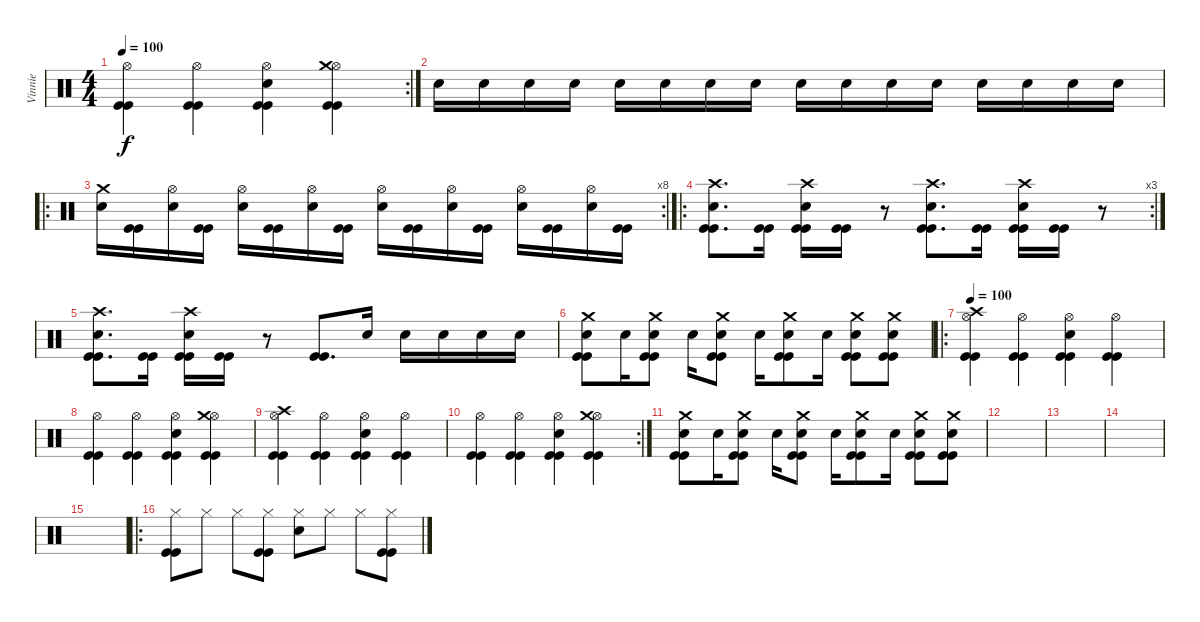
\track ("Vinnie" "Vinnie") {instrument percussion}
\staff {score}
\articulation defaults
\rc 2
\ts (4 4)
\tempo 100
\clef neutral
\ks c
("Hi-Hat (open)" "Kick (hit)" "Kick (hit)").4{dy f} ("Hi-Hat (open)" "Kick (hit)" "Kick (hit)").4 ("Hi-Hat (open)" "Snare (hit) 2" "Kick (hit)" "Kick (hit)").4 ("Hi-Hat (open)" "Crash medium (hit)" "Kick (hit)" "Kick (hit)").4 |
"Snare (hit) 2".16{volume 5} "Snare (hit) 2".16{volume 13} "Snare (hit) 2".16 "Snare (hit) 2".16 "Snare (hit) 2".16 "Snare (hit) 2".16 "Snare (hit) 2".16 "Snare (hit) 2".16 "Snare (hit) 2".16 "Snare (hit) 2".16 "Snare (hit) 2".16 "Snare (hit) 2".16 "Snare (hit) 2".16 "Snare (hit) 2".16 "Snare (hit) 2".16 "Snare (hit) 2".16 |
\ro
\rc 8
("Crash medium (hit)" "Snare (hit) 2").16 ("Kick (hit)" "Kick (hit)").16 ("Hi-Hat (open)" "Snare (hit) 2").16 ("Kick (hit)" "Kick (hit)").16 ("Hi-Hat (open)" "Snare (hit) 2").16 ("Kick (hit)" "Kick (hit)").16 ("Hi-Hat (open)" "Snare (hit) 2").16 ("Kick (hit)" "Kick (hit)").16 ("Hi-Hat (open)" "Snare (hit) 2").16 ("Kick (hit)" "Kick (hit)").16 ("Hi-Hat (open)" "Snare (hit) 2").16 ("Kick (hit)" "Kick (hit)").16 ("Hi-Hat (open)" "Snare (hit) 2").16 ("Kick (hit)" "Kick (hit)").16 ("Hi-Hat (open)" "Snare (hit) 2").16 ("Kick (hit)" "Kick (hit)").16 |
\ro
\rc 3
("Crash high (hit)" "Snare (hit) 2" "Kick (hit)" "Kick (hit)").8{d} ("Kick (hit)" "Kick (hit)").16 ("Crash high (hit)" "Snare (hit) 2" "Kick (hit)" "Kick (hit)").16 ("Kick (hit)" "Kick (hit)").16 r.8 ("Crash high (hit)" "Snare (hit) 2" "Kick (hit)" "Kick (hit)").8{d} ("Kick (hit)" "Kick (hit)").16 ("Crash high (hit)" "Snare (hit) 2" "Kick (hit)" "Kick (hit)").16 ("Kick (hit)" "Kick (hit)").16 r.8 |
("Crash high (hit)" "Snare (hit) 2" "Kick (hit)" "Kick (hit)").8{d} ("Kick (hit)" "Kick (hit)").16 ("Crash high (hit)" "Snare (hit) 2" "Kick (hit)" "Kick (hit)").16 ("Kick (hit)" "Kick (hit)").16 r.8 ("Kick (hit)" "Kick (hit)").8{d} "Snare (hit) 2".16 "Snare (hit) 2".16 "Snare (hit) 2".16 "Snare (hit) 2".16 "Snare (hit) 2".16 |
("Crash medium (hit)" "Snare (hit) 2" "Kick (hit)" "Kick (hit)").8 "Snare (hit) 2".16 ("Crash medium (hit)" "Snare (hit) 2" "Kick (hit)" "Kick (hit)").8 "Snare (hit) 2".16 ("Crash medium (hit)" "Snare (hit) 2" "Kick (hit)" "Kick (hit)").8 "Snare (hit) 2".16 ("Crash medium (hit)" "Snare (hit) 2" "Kick (hit)" "Kick (hit)").8 "Snare (hit) 2".16 ("Crash medium (hit)" "Snare (hit) 2" "Kick (hit)" "Kick (hit)").8 ("Crash medium (hit)" "Snare (hit) 2" "Kick (hit)" "Kick (hit)").8 |
\ro
\tempo 100
("Hi-Hat (open)" "Crash high (hit)" "Kick (hit)" "Kick (hit)").4 ("Hi-Hat (open)" "Kick (hit)" "Kick (hit)").4 ("Hi-Hat (open)" "Snare (hit) 2" "Kick (hit)" "Kick (hit)").4 ("Hi-Hat (open)" "Kick (hit)" "Kick (hit)").4 |
("Hi-Hat (open)" "Kick (hit)" "Kick (hit)").4 ("Hi-Hat (open)" "Kick (hit)" "Kick (hit)").4 ("Hi-Hat (open)" "Snare (hit) 2" "Kick (hit)" "Kick (hit)").4 ("Hi-Hat (open)" "Crash medium (hit)" "Kick (hit)" "Kick (hit)").4 |
("Hi-Hat (open)" "Crash high (hit)" "Kick (hit)" "Kick (hit)").4 ("Hi-Hat (open)" "Kick (hit)" "Kick (hit)").4 ("Hi-Hat (open)" "Snare (hit) 2" "Kick (hit)" "Kick (hit)").4 ("Hi-Hat (open)" "Kick (hit)" "Kick (hit)").4 |
\rc 2
("Hi-Hat (open)" "Kick (hit)" "Kick (hit)").4 ("Hi-Hat (open)" "Kick (hit)" "Kick (hit)").4 ("Hi-Hat (open)" "Snare (hit) 2" "Kick (hit)" "Kick (hit)").4 ("Hi-Hat (open)" "Crash medium (hit)" "Kick (hit)" "Kick (hit)").4 |
("Crash medium (hit)" "Snare (hit) 2" "Kick (hit)" "Kick (hit)").8 "Snare (hit) 2".16 ("Crash medium (hit)" "Snare (hit) 2" "Kick (hit)" "Kick (hit)").8 "Snare (hit) 2".16 ("Crash medium (hit)" "Snare (hit) 2" "Kick (hit)" "Kick (hit)").8 "Snare (hit) 2".16 ("Crash medium (hit)" "Snare (hit) 2" "Kick (hit)" "Kick (hit)").8 "Snare (hit) 2".16 ("Crash medium (hit)" "Snare (hit) 2" "Kick (hit)" "Kick (hit)").8 ("Crash medium (hit)" "Snare (hit) 2" "Kick (hit)" "Kick (hit)").8 |
|
|
|
|
\ro
("Hi-Hat (closed)" "Kick (hit)" "Kick (hit)").8 "Hi-Hat (closed)".8 "Hi-Hat (closed)".8 ("Hi-Hat (closed)" "Kick (hit)" "Kick (hit)").8 ("Hi-Hat (closed)" "Snare (hit) 2").8 "Hi-Hat (closed)".8 "Hi-Hat (closed)".8 ("Hi-Hat (closed)" "Kick (hit)" "Kick (hit)").8
